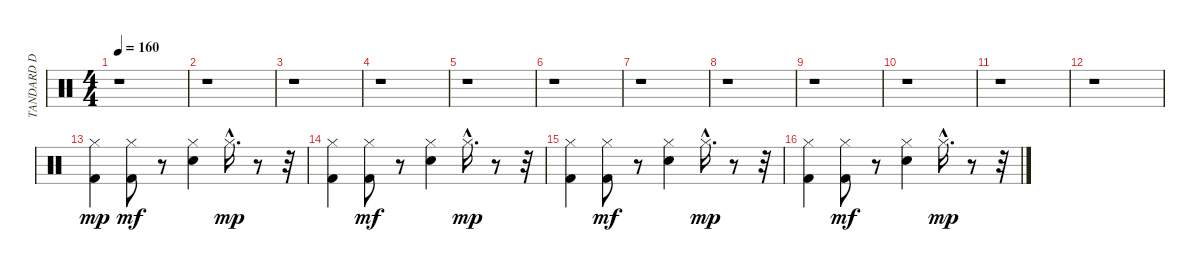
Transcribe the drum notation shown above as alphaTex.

\track ("STANDARD DRUMS" "STANDARD D") {instrument percussion}
\staff {score}
\articulation defaults
\ts (4 4)
\tempo 160
\clef neutral
\ks c
r.1{dy mp} |
r.1 |
r.1 |
r.1 |
r.1 |
r.1 |
r.1 |
r.1 |
r.1 |
r.1 |
r.1 |
r.1 |
("Hi-Hat (closed)" "Kick (hit) 2").4 ("Hi-Hat (closed)" "Kick (hit) 2").8{dy mf} r.8 ("Hi-Hat (closed)" "Electric Snare (hit)").4 "Hi-Hat (closed)"{hac}.16{d dy mp} r.8 r.32 |
("Hi-Hat (closed)" "Kick (hit) 2").4 ("Hi-Hat (closed)" "Kick (hit) 2").8{dy mf} r.8 ("Hi-Hat (closed)" "Electric Snare (hit)").4 "Hi-Hat (closed)"{hac}.16{d dy mp} r.8 r.32 |
("Hi-Hat (closed)" "Kick (hit) 2").4 ("Hi-Hat (closed)" "Kick (hit) 2").8{dy mf} r.8 ("Hi-Hat (closed)" "Electric Snare (hit)").4 "Hi-Hat (closed)"{hac}.16{d dy mp} r.8 r.32 |
("Hi-Hat (closed)" "Kick (hit) 2").4 ("Hi-Hat (closed)" "Kick (hit) 2").8{dy mf} r.8 ("Hi-Hat (closed)" "Electric Snare (hit)").4 "Hi-Hat (closed)"{hac}.16{d dy mp} r.8 r.32
